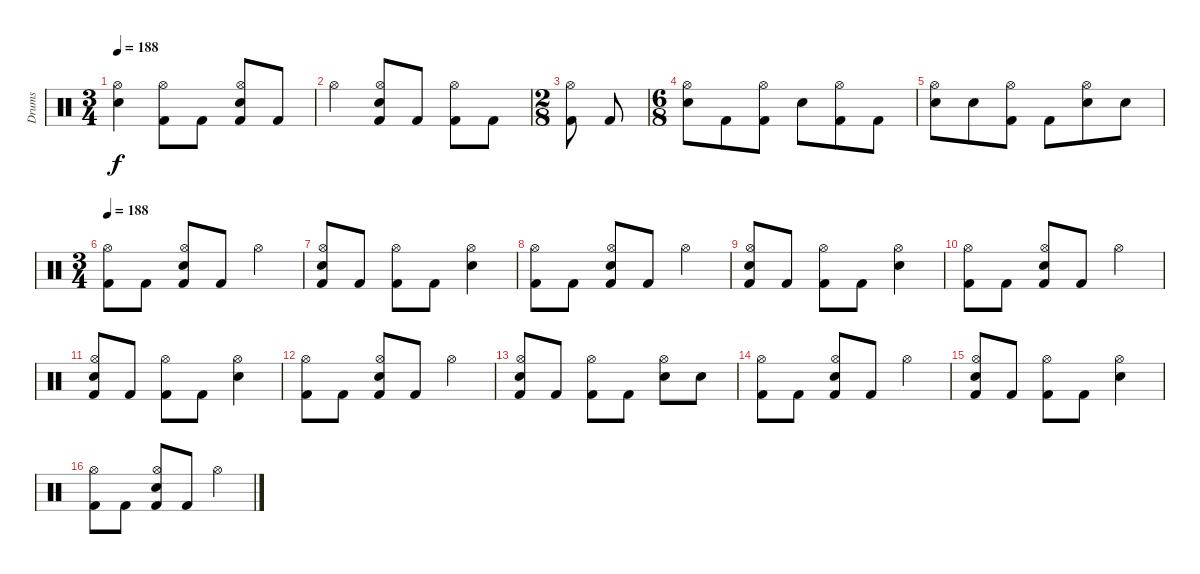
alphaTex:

\track ("Drums" "Drums") {instrument percussion}
\staff {score}
\articulation defaults
\ts (3 4)
\tempo 188
\clef neutral
\ks c
("Electric Snare (hit)" "Hi-Hat (open)").4{dy f} ("Hi-Hat (open)" "Kick (hit) 2").8 "Kick (hit) 2".8 ("Electric Snare (hit)" "Hi-Hat (open)" "Kick (hit) 2").8 "Kick (hit) 2".8 |
"Hi-Hat (open)".4 ("Electric Snare (hit)" "Hi-Hat (open)" "Kick (hit) 2").8 "Kick (hit) 2".8 ("Hi-Hat (open)" "Kick (hit) 2").8 "Kick (hit) 2".8 |
\ts (2 8)
("Hi-Hat (open)" "Kick (hit) 2").8 "Kick (hit) 2".8 |
\ts (6 8)
("Electric Snare (hit)" "Hi-Hat (open)").8 "Kick (hit) 2".8 ("Hi-Hat (open)" "Kick (hit) 2").8 "Electric Snare (hit)".8 ("Hi-Hat (open)" "Kick (hit) 2").8 "Kick (hit) 2".8 |
("Electric Snare (hit)" "Hi-Hat (open)").8 "Electric Snare (hit)".8 ("Hi-Hat (open)" "Kick (hit) 2").8 "Kick (hit) 2".8 ("Electric Snare (hit)" "Hi-Hat (open)").8 "Electric Snare (hit)".8 |
\ts (3 4)
\tempo 188
("Hi-Hat (open)" "Kick (hit) 2").8 "Kick (hit) 2".8 ("Electric Snare (hit)" "Hi-Hat (open)" "Kick (hit) 2").8 "Kick (hit) 2".8 "Hi-Hat (open)".4 |
("Electric Snare (hit)" "Hi-Hat (open)" "Kick (hit) 2").8 "Kick (hit) 2".8 ("Hi-Hat (open)" "Kick (hit) 2").8 "Kick (hit) 2".8 ("Electric Snare (hit)" "Hi-Hat (open)").4 |
("Hi-Hat (open)" "Kick (hit) 2").8 "Kick (hit) 2".8 ("Electric Snare (hit)" "Hi-Hat (open)" "Kick (hit) 2").8 "Kick (hit) 2".8 "Hi-Hat (open)".4 |
("Electric Snare (hit)" "Hi-Hat (open)" "Kick (hit) 2").8 "Kick (hit) 2".8 ("Hi-Hat (open)" "Kick (hit) 2").8 "Kick (hit) 2".8 ("Electric Snare (hit)" "Hi-Hat (open)").4 |
("Hi-Hat (open)" "Kick (hit) 2").8 "Kick (hit) 2".8 ("Electric Snare (hit)" "Hi-Hat (open)" "Kick (hit) 2").8 "Kick (hit) 2".8 "Hi-Hat (open)".4 |
("Electric Snare (hit)" "Hi-Hat (open)" "Kick (hit) 2").8 "Kick (hit) 2".8 ("Hi-Hat (open)" "Kick (hit) 2").8 "Kick (hit) 2".8 ("Electric Snare (hit)" "Hi-Hat (open)").4 |
("Hi-Hat (open)" "Kick (hit) 2").8 "Kick (hit) 2".8 ("Electric Snare (hit)" "Hi-Hat (open)" "Kick (hit) 2").8 "Kick (hit) 2".8 "Hi-Hat (open)".4 |
("Electric Snare (hit)" "Hi-Hat (open)" "Kick (hit) 2").8 "Kick (hit) 2".8 ("Hi-Hat (open)" "Kick (hit) 2").8 "Kick (hit) 2".8 ("Electric Snare (hit)" "Hi-Hat (open)").8 "Electric Snare (hit)".8 |
("Hi-Hat (open)" "Kick (hit) 2").8 "Kick (hit) 2".8 ("Electric Snare (hit)" "Hi-Hat (open)" "Kick (hit) 2").8 "Kick (hit) 2".8 "Hi-Hat (open)".4 |
("Electric Snare (hit)" "Hi-Hat (open)" "Kick (hit) 2").8 "Kick (hit) 2".8 ("Hi-Hat (open)" "Kick (hit) 2").8 "Kick (hit) 2".8 ("Electric Snare (hit)" "Hi-Hat (open)").4 |
("Hi-Hat (open)" "Kick (hit) 2").8 "Kick (hit) 2".8 ("Electric Snare (hit)" "Hi-Hat (open)" "Kick (hit) 2").8 "Kick (hit) 2".8 "Hi-Hat (open)".4
